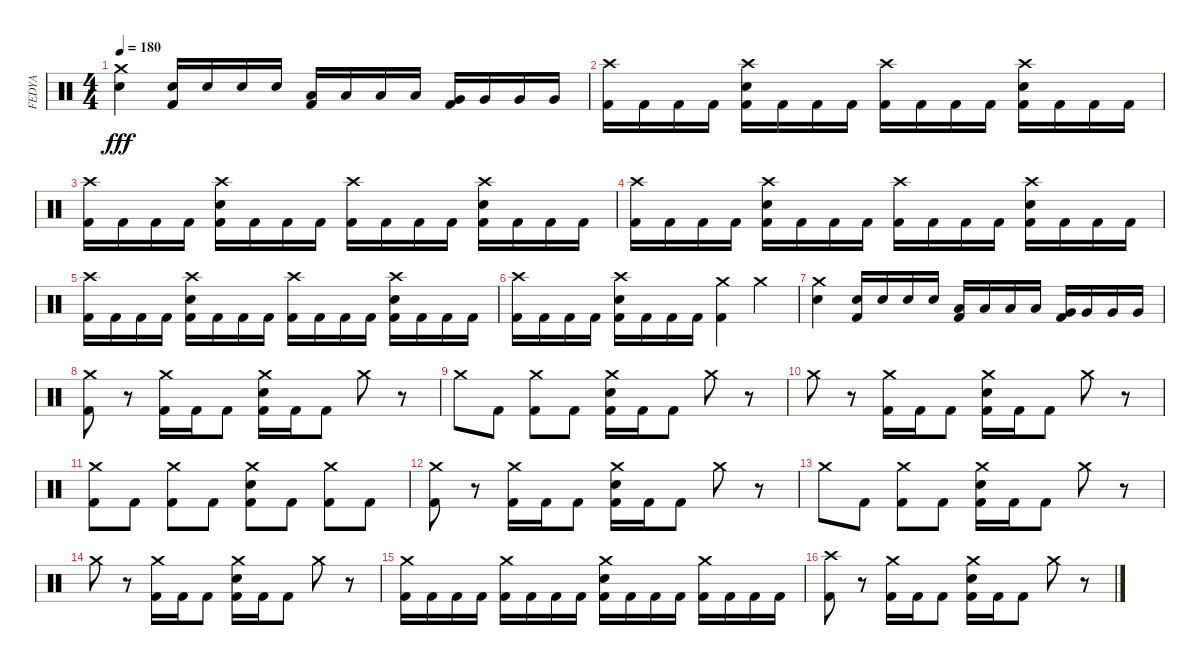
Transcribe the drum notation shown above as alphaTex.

\track ("FEDYA" "FEDYA") {instrument percussion}
\staff {score}
\articulation defaults
\ts (4 4)
\tempo 180
\clef neutral
\ks c
("Crash medium (hit)" "Snare (hit) 2").4{dy fff} ("Snare (hit) 2" "Kick (hit) 2").16 "Snare (hit) 2".16 "Snare (hit) 2".16 "Snare (hit) 2".16 ("Low Tom (hit)" "Kick (hit) 2").16 "Low Tom (hit)".16 "Low Tom (hit)".16 "Low Tom (hit)".16 ("Very Low Tom (hit)" "Kick (hit) 2").16 "Very Low Tom (hit)".16 "Very Low Tom (hit)".16 "Very Low Tom (hit)".16 |
("Crash high (hit)" "Kick (hit) 2").16 "Kick (hit) 2".16 "Kick (hit) 2".16 "Kick (hit) 2".16 ("Crash high (hit)" "Snare (hit) 2" "Kick (hit) 2").16 "Kick (hit) 2".16 "Kick (hit) 2".16 "Kick (hit) 2".16 ("Crash high (hit)" "Kick (hit) 2").16 "Kick (hit) 2".16 "Kick (hit) 2".16 "Kick (hit) 2".16 ("Crash high (hit)" "Snare (hit) 2" "Kick (hit) 2").16 "Kick (hit) 2".16 "Kick (hit) 2".16 "Kick (hit) 2".16 |
("Crash high (hit)" "Kick (hit) 2").16 "Kick (hit) 2".16 "Kick (hit) 2".16 "Kick (hit) 2".16 ("Crash high (hit)" "Snare (hit) 2" "Kick (hit) 2").16 "Kick (hit) 2".16 "Kick (hit) 2".16 "Kick (hit) 2".16 ("Crash high (hit)" "Kick (hit) 2").16 "Kick (hit) 2".16 "Kick (hit) 2".16 "Kick (hit) 2".16 ("Crash high (hit)" "Snare (hit) 2" "Kick (hit) 2").16 "Kick (hit) 2".16 "Kick (hit) 2".16 "Kick (hit) 2".16 |
("Crash high (hit)" "Kick (hit) 2").16 "Kick (hit) 2".16 "Kick (hit) 2".16 "Kick (hit) 2".16 ("Crash high (hit)" "Snare (hit) 2" "Kick (hit) 2").16 "Kick (hit) 2".16 "Kick (hit) 2".16 "Kick (hit) 2".16 ("Crash high (hit)" "Kick (hit) 2").16 "Kick (hit) 2".16 "Kick (hit) 2".16 "Kick (hit) 2".16 ("Crash high (hit)" "Snare (hit) 2" "Kick (hit) 2").16 "Kick (hit) 2".16 "Kick (hit) 2".16 "Kick (hit) 2".16 |
("Crash high (hit)" "Kick (hit) 2").16 "Kick (hit) 2".16 "Kick (hit) 2".16 "Kick (hit) 2".16 ("Crash high (hit)" "Snare (hit) 2" "Kick (hit) 2").16 "Kick (hit) 2".16 "Kick (hit) 2".16 "Kick (hit) 2".16 ("Crash high (hit)" "Kick (hit) 2").16 "Kick (hit) 2".16 "Kick (hit) 2".16 "Kick (hit) 2".16 ("Crash high (hit)" "Snare (hit) 2" "Kick (hit) 2").16 "Kick (hit) 2".16 "Kick (hit) 2".16 "Kick (hit) 2".16 |
("Crash high (hit)" "Kick (hit) 2").16 "Kick (hit) 2".16 "Kick (hit) 2".16 "Kick (hit) 2".16 ("Crash high (hit)" "Snare (hit) 2" "Kick (hit) 2").16 "Kick (hit) 2".16 "Kick (hit) 2".16 "Kick (hit) 2".16 ("Crash medium (hit)" "Kick (hit) 2").4 "Crash medium (hit)".4 |
("Crash medium (hit)" "Snare (hit) 2").4 ("Snare (hit) 2" "Kick (hit) 2").16 "Snare (hit) 2".16 "Snare (hit) 2".16 "Snare (hit) 2".16 ("Low Tom (hit)" "Kick (hit) 2").16 "Low Tom (hit)".16 "Low Tom (hit)".16 "Low Tom (hit)".16 ("Very Low Tom (hit)" "Kick (hit) 2").16 "Very Low Tom (hit)".16 "Very Low Tom (hit)".16 "Very Low Tom (hit)".16 |
("Crash medium (hit)" "Kick (hit) 2").8 r.8 ("Crash medium (hit)" "Kick (hit) 2").16 "Kick (hit) 2".16 "Kick (hit) 2".8 ("Crash medium (hit)" "Snare (hit) 2" "Kick (hit) 2").16 "Kick (hit) 2".16 "Kick (hit) 2".8 "Crash medium (hit)".8 r.8 |
"Crash medium (hit)".8 "Kick (hit) 2".8 ("Crash medium (hit)" "Kick (hit) 2").8 "Kick (hit) 2".8 ("Crash medium (hit)" "Snare (hit) 2" "Kick (hit) 2").16 "Kick (hit) 2".16 "Kick (hit) 2".8 "Crash medium (hit)".8 r.8 |
"Crash medium (hit)".8 r.8 ("Crash medium (hit)" "Kick (hit) 2").16 "Kick (hit) 2".16 "Kick (hit) 2".8 ("Crash medium (hit)" "Snare (hit) 2" "Kick (hit) 2").16 "Kick (hit) 2".16 "Kick (hit) 2".8 "Crash medium (hit)".8 r.8 |
("Crash medium (hit)" "Kick (hit) 2").8 "Kick (hit) 2".8 ("Crash medium (hit)" "Kick (hit) 2").8 "Kick (hit) 2".8 ("Crash medium (hit)" "Snare (hit) 2" "Kick (hit) 2").8 "Kick (hit) 2".8 ("Crash medium (hit)" "Kick (hit) 2").8 "Kick (hit) 2".8 |
("Crash medium (hit)" "Kick (hit) 2").8 r.8 ("Crash medium (hit)" "Kick (hit) 2").16 "Kick (hit) 2".16 "Kick (hit) 2".8 ("Crash medium (hit)" "Snare (hit) 2" "Kick (hit) 2").16 "Kick (hit) 2".16 "Kick (hit) 2".8 "Crash medium (hit)".8 r.8 |
"Crash medium (hit)".8 "Kick (hit) 2".8 ("Crash medium (hit)" "Kick (hit) 2").8 "Kick (hit) 2".8 ("Crash medium (hit)" "Snare (hit) 2" "Kick (hit) 2").16 "Kick (hit) 2".16 "Kick (hit) 2".8 "Crash medium (hit)".8 r.8 |
"Crash medium (hit)".8 r.8 ("Crash medium (hit)" "Kick (hit) 2").16 "Kick (hit) 2".16 "Kick (hit) 2".8 ("Crash medium (hit)" "Snare (hit) 2" "Kick (hit) 2").16 "Kick (hit) 2".16 "Kick (hit) 2".8 "Crash medium (hit)".8 r.8 |
("Crash medium (hit)" "Kick (hit) 2").16 "Kick (hit) 2".16 "Kick (hit) 2".16 "Kick (hit) 2".16 ("Crash medium (hit)" "Kick (hit) 2").16 "Kick (hit) 2".16 "Kick (hit) 2".16 "Kick (hit) 2".16 ("Crash medium (hit)" "Snare (hit) 2" "Kick (hit) 2").16 "Kick (hit) 2".16 "Kick (hit) 2".16 "Kick (hit) 2".16 ("Crash medium (hit)" "Kick (hit) 2").16 "Kick (hit) 2".16 "Kick (hit) 2".16 "Kick (hit) 2".16 |
("Crash high (hit)" "Kick (hit) 2").8 r.8 ("Crash medium (hit)" "Kick (hit) 2").16 "Kick (hit) 2".16 "Kick (hit) 2".8 ("Crash medium (hit)" "Snare (hit) 2" "Kick (hit) 2").16 "Kick (hit) 2".16 "Kick (hit) 2".8 "Crash medium (hit)".8 r.8
